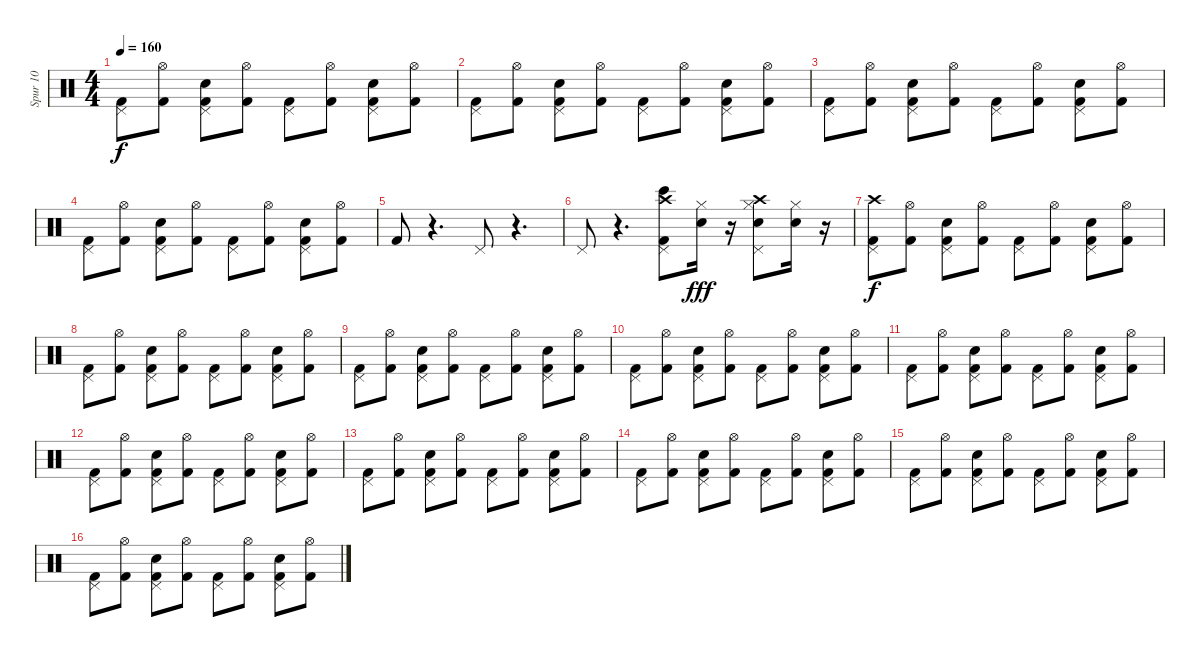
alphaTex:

\track ("Spur 10" "Spur 10") {instrument percussion}
\staff {score}
\articulation defaults
\ts (4 4)
\tempo 160
\clef neutral
\ks c
("Kick (hit) 2" "Pedal Hi-Hat (hit)").8{dy f} ("Hi-Hat (open)" "Kick (hit) 2").8 ("Kick (hit) 2" "Pedal Hi-Hat (hit)" "Snare (hit) 2").8 ("Hi-Hat (open)" "Kick (hit) 2").8 ("Pedal Hi-Hat (hit)" "Kick (hit) 2").8 ("Kick (hit) 2" "Hi-Hat (open)").8 ("Kick (hit) 2" "Snare (hit) 2" "Pedal Hi-Hat (hit)").8 ("Hi-Hat (open)" "Kick (hit) 2").8 |
("Pedal Hi-Hat (hit)" "Kick (hit) 2").8 ("Kick (hit) 2" "Hi-Hat (open)").8 ("Pedal Hi-Hat (hit)" "Kick (hit) 2" "Snare (hit) 2").8 ("Kick (hit) 2" "Hi-Hat (open)").8 ("Kick (hit) 2" "Pedal Hi-Hat (hit)").8 ("Kick (hit) 2" "Hi-Hat (open)").8 ("Snare (hit) 2" "Pedal Hi-Hat (hit)" "Kick (hit) 2").8 ("Hi-Hat (open)" "Kick (hit) 2").8 |
("Pedal Hi-Hat (hit)" "Kick (hit) 2").8 ("Kick (hit) 2" "Hi-Hat (open)").8 ("Pedal Hi-Hat (hit)" "Kick (hit) 2" "Snare (hit) 2").8 ("Kick (hit) 2" "Hi-Hat (open)").8 ("Kick (hit) 2" "Pedal Hi-Hat (hit)").8 ("Kick (hit) 2" "Hi-Hat (open)").8 ("Kick (hit) 2" "Snare (hit) 2" "Pedal Hi-Hat (hit)").8 ("Kick (hit) 2" "Hi-Hat (open)").8 |
("Pedal Hi-Hat (hit)" "Kick (hit) 2").8 ("Kick (hit) 2" "Hi-Hat (open)").8 ("Pedal Hi-Hat (hit)" "Kick (hit) 2" "Snare (hit) 2").8 ("Hi-Hat (open)" "Kick (hit) 2").8 ("Pedal Hi-Hat (hit)" "Kick (hit) 2").8 ("Hi-Hat (open)" "Kick (hit) 2").8 ("Pedal Hi-Hat (hit)" "Snare (hit) 2" "Kick (hit) 2").8 ("Kick (hit) 2" "Hi-Hat (open)").8 |
"Kick (hit) 2".8 r.4{d} "Pedal Hi-Hat (hit)".8 r.4{d} |
"Pedal Hi-Hat (hit)".8 r.4{d} ("Bongo High (hit)" "Crash high (hit)" "Kick (hit) 2" "Pedal Hi-Hat (hit)").8 ("Hand Clap (hit)" "Hi-Hat (closed)").16{dy fff} r.16 ("Crash high (hit)" "Pedal Hi-Hat (hit)" "Hand Clap (hit)" "Hi-Hat (closed)").8 ("Hand Clap (hit)" "Hi-Hat (closed)").16 r.16 |
("Crash high (hit)" "Kick (hit) 2" "Pedal Hi-Hat (hit)").8{dy f} ("Kick (hit) 2" "Hi-Hat (open)").8 ("Snare (hit) 2" "Kick (hit) 2" "Pedal Hi-Hat (hit)").8 ("Hi-Hat (open)" "Kick (hit) 2").8 ("Pedal Hi-Hat (hit)" "Kick (hit) 2").8 ("Hi-Hat (open)" "Kick (hit) 2").8 ("Kick (hit) 2" "Pedal Hi-Hat (hit)" "Snare (hit) 2").8 ("Kick (hit) 2" "Hi-Hat (open)").8 |
("Pedal Hi-Hat (hit)" "Kick (hit) 2").8 ("Hi-Hat (open)" "Kick (hit) 2").8 ("Snare (hit) 2" "Pedal Hi-Hat (hit)" "Kick (hit) 2").8 ("Kick (hit) 2" "Hi-Hat (open)").8 ("Pedal Hi-Hat (hit)" "Kick (hit) 2").8 ("Hi-Hat (open)" "Kick (hit) 2").8 ("Pedal Hi-Hat (hit)" "Kick (hit) 2" "Snare (hit) 2").8 ("Kick (hit) 2" "Hi-Hat (open)").8 |
("Kick (hit) 2" "Pedal Hi-Hat (hit)").8 ("Kick (hit) 2" "Hi-Hat (open)").8 ("Pedal Hi-Hat (hit)" "Snare (hit) 2" "Kick (hit) 2").8 ("Hi-Hat (open)" "Kick (hit) 2").8 ("Kick (hit) 2" "Pedal Hi-Hat (hit)").8 ("Kick (hit) 2" "Hi-Hat (open)").8 ("Pedal Hi-Hat (hit)" "Kick (hit) 2" "Snare (hit) 2").8 ("Hi-Hat (open)" "Kick (hit) 2").8 |
("Pedal Hi-Hat (hit)" "Kick (hit) 2").8 ("Hi-Hat (open)" "Kick (hit) 2").8 ("Snare (hit) 2" "Pedal Hi-Hat (hit)" "Kick (hit) 2").8 ("Hi-Hat (open)" "Kick (hit) 2").8 ("Pedal Hi-Hat (hit)" "Kick (hit) 2").8 ("Kick (hit) 2" "Hi-Hat (open)").8 ("Pedal Hi-Hat (hit)" "Kick (hit) 2" "Snare (hit) 2").8 ("Hi-Hat (open)" "Kick (hit) 2").8 |
("Kick (hit) 2" "Pedal Hi-Hat (hit)").8 ("Hi-Hat (open)" "Kick (hit) 2").8 ("Kick (hit) 2" "Snare (hit) 2" "Pedal Hi-Hat (hit)").8 ("Kick (hit) 2" "Hi-Hat (open)").8 ("Kick (hit) 2" "Pedal Hi-Hat (hit)").8 ("Kick (hit) 2" "Hi-Hat (open)").8 ("Snare (hit) 2" "Pedal Hi-Hat (hit)" "Kick (hit) 2").8 ("Kick (hit) 2" "Hi-Hat (open)").8 |
("Pedal Hi-Hat (hit)" "Kick (hit) 2").8 ("Hi-Hat (open)" "Kick (hit) 2").8 ("Pedal Hi-Hat (hit)" "Snare (hit) 2" "Kick (hit) 2").8 ("Hi-Hat (open)" "Kick (hit) 2").8 ("Kick (hit) 2" "Pedal Hi-Hat (hit)").8 ("Hi-Hat (open)" "Kick (hit) 2").8 ("Kick (hit) 2" "Pedal Hi-Hat (hit)" "Snare (hit) 2").8 ("Kick (hit) 2" "Hi-Hat (open)").8 |
("Kick (hit) 2" "Pedal Hi-Hat (hit)").8 ("Kick (hit) 2" "Hi-Hat (open)").8 ("Pedal Hi-Hat (hit)" "Kick (hit) 2" "Snare (hit) 2").8 ("Kick (hit) 2" "Hi-Hat (open)").8 ("Pedal Hi-Hat (hit)" "Kick (hit) 2").8 ("Hi-Hat (open)" "Kick (hit) 2").8 ("Snare (hit) 2" "Pedal Hi-Hat (hit)" "Kick (hit) 2").8 ("Kick (hit) 2" "Hi-Hat (open)").8 |
("Pedal Hi-Hat (hit)" "Kick (hit) 2").8 ("Hi-Hat (open)" "Kick (hit) 2").8 ("Snare (hit) 2" "Kick (hit) 2" "Pedal Hi-Hat (hit)").8 ("Hi-Hat (open)" "Kick (hit) 2").8 ("Kick (hit) 2" "Pedal Hi-Hat (hit)").8 ("Hi-Hat (open)" "Kick (hit) 2").8 ("Pedal Hi-Hat (hit)" "Snare (hit) 2" "Kick (hit) 2").8 ("Hi-Hat (open)" "Kick (hit) 2").8 |
("Kick (hit) 2" "Pedal Hi-Hat (hit)").8 ("Kick (hit) 2" "Hi-Hat (open)").8 ("Pedal Hi-Hat (hit)" "Kick (hit) 2" "Snare (hit) 2").8 ("Hi-Hat (open)" "Kick (hit) 2").8 ("Pedal Hi-Hat (hit)" "Kick (hit) 2").8 ("Hi-Hat (open)" "Kick (hit) 2").8 ("Snare (hit) 2" "Kick (hit) 2" "Pedal Hi-Hat (hit)").8 ("Kick (hit) 2" "Hi-Hat (open)").8 |
("Pedal Hi-Hat (hit)" "Kick (hit) 2").8 ("Hi-Hat (open)" "Kick (hit) 2").8 ("Snare (hit) 2" "Pedal Hi-Hat (hit)" "Kick (hit) 2").8 ("Hi-Hat (open)" "Kick (hit) 2").8 ("Pedal Hi-Hat (hit)" "Kick (hit) 2").8 ("Hi-Hat (open)" "Kick (hit) 2").8 ("Snare (hit) 2" "Kick (hit) 2" "Pedal Hi-Hat (hit)").8 ("Kick (hit) 2" "Hi-Hat (open)").8
